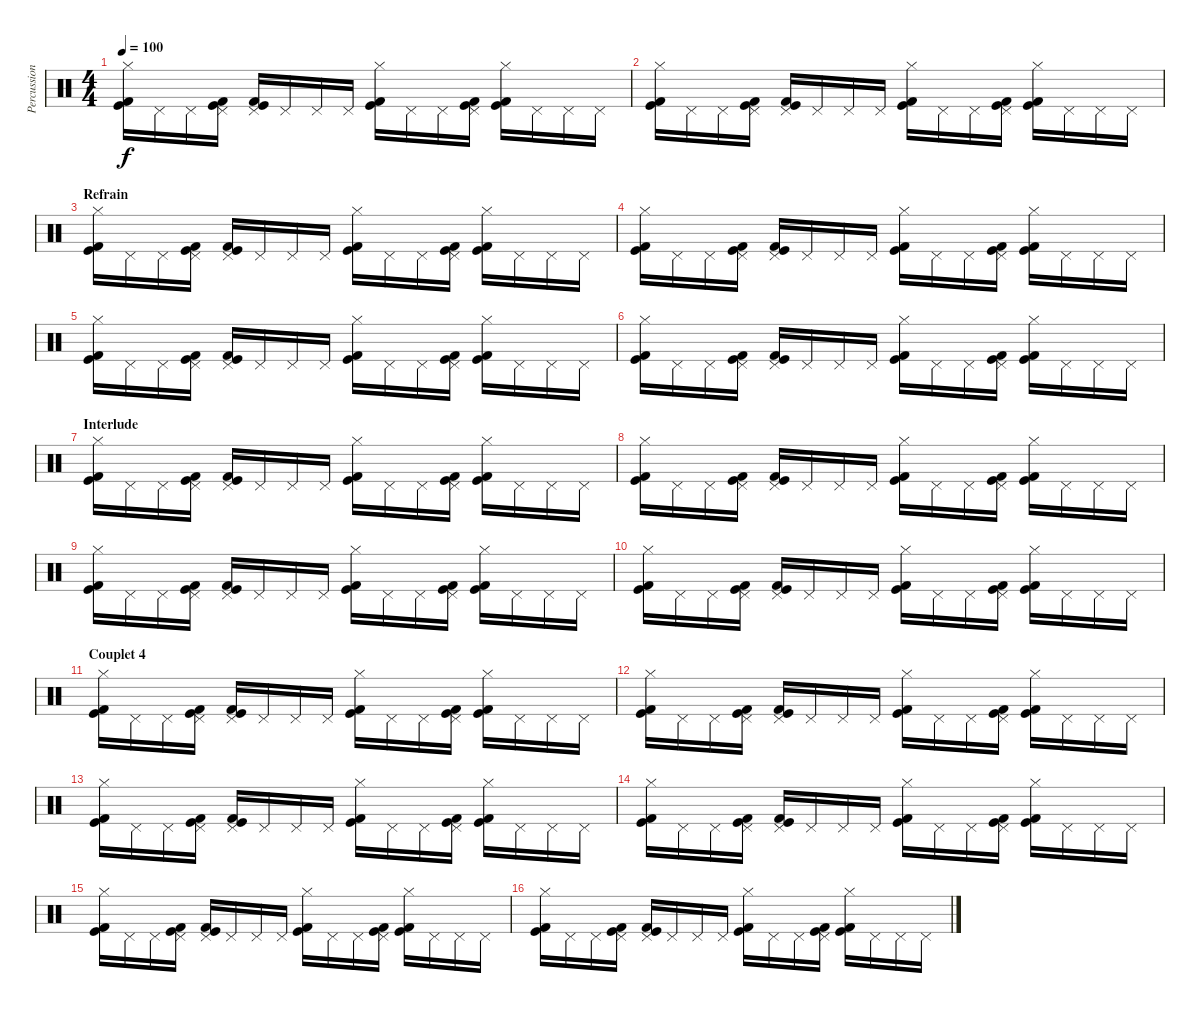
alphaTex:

\track ("Percussions" "Percussion") {instrument percussion}
\staff {score}
\articulation defaults
\ts (4 4)
\tempo 100
\clef neutral
\ks c
("Kick (hit)" "Kick (hit) 2" "Hi-Hat (closed)").16{dy f} "Pedal Hi-Hat (hit)".16 "Pedal Hi-Hat (hit)".16 ("Kick (hit)" "Kick (hit) 2" "Pedal Hi-Hat (hit)").16 ("Kick (hit)" "Kick (hit) 2" "Pedal Hi-Hat (hit)").16 "Pedal Hi-Hat (hit)".16 "Pedal Hi-Hat (hit)".16 "Pedal Hi-Hat (hit)".16 ("Kick (hit)" "Kick (hit) 2" "Hi-Hat (closed)").16 "Pedal Hi-Hat (hit)".16 "Pedal Hi-Hat (hit)".16 ("Kick (hit)" "Kick (hit) 2" "Pedal Hi-Hat (hit)").16 ("Kick (hit)" "Kick (hit) 2" "Hi-Hat (closed)").16 "Pedal Hi-Hat (hit)".16 "Pedal Hi-Hat (hit)".16 "Pedal Hi-Hat (hit)".16 |
("Kick (hit)" "Kick (hit) 2" "Hi-Hat (closed)").16 "Pedal Hi-Hat (hit)".16 "Pedal Hi-Hat (hit)".16 ("Kick (hit)" "Kick (hit) 2" "Pedal Hi-Hat (hit)").16 ("Kick (hit)" "Kick (hit) 2" "Pedal Hi-Hat (hit)").16 "Pedal Hi-Hat (hit)".16 "Pedal Hi-Hat (hit)".16 "Pedal Hi-Hat (hit)".16 ("Kick (hit)" "Kick (hit) 2" "Hi-Hat (closed)").16 "Pedal Hi-Hat (hit)".16 "Pedal Hi-Hat (hit)".16 ("Kick (hit)" "Kick (hit) 2" "Pedal Hi-Hat (hit)").16 ("Kick (hit)" "Kick (hit) 2" "Hi-Hat (closed)").16 "Pedal Hi-Hat (hit)".16 "Pedal Hi-Hat (hit)".16 "Pedal Hi-Hat (hit)".16 |
\section ("" "Refrain")
("Kick (hit)" "Kick (hit) 2" "Hi-Hat (closed)").16 "Pedal Hi-Hat (hit)".16 "Pedal Hi-Hat (hit)".16 ("Kick (hit)" "Kick (hit) 2" "Pedal Hi-Hat (hit)").16 ("Kick (hit)" "Kick (hit) 2" "Pedal Hi-Hat (hit)").16 "Pedal Hi-Hat (hit)".16 "Pedal Hi-Hat (hit)".16 "Pedal Hi-Hat (hit)".16 ("Kick (hit)" "Kick (hit) 2" "Hi-Hat (closed)").16 "Pedal Hi-Hat (hit)".16 "Pedal Hi-Hat (hit)".16 ("Kick (hit)" "Kick (hit) 2" "Pedal Hi-Hat (hit)").16 ("Kick (hit)" "Kick (hit) 2" "Hi-Hat (closed)").16 "Pedal Hi-Hat (hit)".16 "Pedal Hi-Hat (hit)".16 "Pedal Hi-Hat (hit)".16 |
("Kick (hit)" "Kick (hit) 2" "Hi-Hat (closed)").16 "Pedal Hi-Hat (hit)".16 "Pedal Hi-Hat (hit)".16 ("Kick (hit)" "Kick (hit) 2" "Pedal Hi-Hat (hit)").16 ("Kick (hit)" "Kick (hit) 2" "Pedal Hi-Hat (hit)").16 "Pedal Hi-Hat (hit)".16 "Pedal Hi-Hat (hit)".16 "Pedal Hi-Hat (hit)".16 ("Kick (hit)" "Kick (hit) 2" "Hi-Hat (closed)").16 "Pedal Hi-Hat (hit)".16 "Pedal Hi-Hat (hit)".16 ("Kick (hit)" "Kick (hit) 2" "Pedal Hi-Hat (hit)").16 ("Kick (hit)" "Kick (hit) 2" "Hi-Hat (closed)").16 "Pedal Hi-Hat (hit)".16 "Pedal Hi-Hat (hit)".16 "Pedal Hi-Hat (hit)".16 |
("Kick (hit)" "Kick (hit) 2" "Hi-Hat (closed)").16 "Pedal Hi-Hat (hit)".16 "Pedal Hi-Hat (hit)".16 ("Kick (hit)" "Kick (hit) 2" "Pedal Hi-Hat (hit)").16 ("Kick (hit)" "Kick (hit) 2" "Pedal Hi-Hat (hit)").16 "Pedal Hi-Hat (hit)".16 "Pedal Hi-Hat (hit)".16 "Pedal Hi-Hat (hit)".16 ("Kick (hit)" "Kick (hit) 2" "Hi-Hat (closed)").16 "Pedal Hi-Hat (hit)".16 "Pedal Hi-Hat (hit)".16 ("Kick (hit)" "Kick (hit) 2" "Pedal Hi-Hat (hit)").16 ("Kick (hit)" "Kick (hit) 2" "Hi-Hat (closed)").16 "Pedal Hi-Hat (hit)".16 "Pedal Hi-Hat (hit)".16 "Pedal Hi-Hat (hit)".16 |
("Kick (hit)" "Kick (hit) 2" "Hi-Hat (closed)").16 "Pedal Hi-Hat (hit)".16 "Pedal Hi-Hat (hit)".16 ("Kick (hit)" "Kick (hit) 2" "Pedal Hi-Hat (hit)").16 ("Kick (hit)" "Kick (hit) 2" "Pedal Hi-Hat (hit)").16 "Pedal Hi-Hat (hit)".16 "Pedal Hi-Hat (hit)".16 "Pedal Hi-Hat (hit)".16 ("Kick (hit)" "Kick (hit) 2" "Hi-Hat (closed)").16 "Pedal Hi-Hat (hit)".16 "Pedal Hi-Hat (hit)".16 ("Kick (hit)" "Kick (hit) 2" "Pedal Hi-Hat (hit)").16 ("Kick (hit)" "Kick (hit) 2" "Hi-Hat (closed)").16 "Pedal Hi-Hat (hit)".16 "Pedal Hi-Hat (hit)".16 "Pedal Hi-Hat (hit)".16 |
\section ("" "Interlude")
("Kick (hit)" "Kick (hit) 2" "Hi-Hat (closed)").16 "Pedal Hi-Hat (hit)".16 "Pedal Hi-Hat (hit)".16 ("Kick (hit)" "Kick (hit) 2" "Pedal Hi-Hat (hit)").16 ("Kick (hit)" "Kick (hit) 2" "Pedal Hi-Hat (hit)").16 "Pedal Hi-Hat (hit)".16 "Pedal Hi-Hat (hit)".16 "Pedal Hi-Hat (hit)".16 ("Kick (hit)" "Kick (hit) 2" "Hi-Hat (closed)").16 "Pedal Hi-Hat (hit)".16 "Pedal Hi-Hat (hit)".16 ("Kick (hit)" "Kick (hit) 2" "Pedal Hi-Hat (hit)").16 ("Kick (hit)" "Kick (hit) 2" "Hi-Hat (closed)").16 "Pedal Hi-Hat (hit)".16 "Pedal Hi-Hat (hit)".16 "Pedal Hi-Hat (hit)".16 |
("Kick (hit)" "Kick (hit) 2" "Hi-Hat (closed)").16 "Pedal Hi-Hat (hit)".16 "Pedal Hi-Hat (hit)".16 ("Kick (hit)" "Kick (hit) 2" "Pedal Hi-Hat (hit)").16 ("Kick (hit)" "Kick (hit) 2" "Pedal Hi-Hat (hit)").16 "Pedal Hi-Hat (hit)".16 "Pedal Hi-Hat (hit)".16 "Pedal Hi-Hat (hit)".16 ("Kick (hit)" "Kick (hit) 2" "Hi-Hat (closed)").16 "Pedal Hi-Hat (hit)".16 "Pedal Hi-Hat (hit)".16 ("Kick (hit)" "Kick (hit) 2" "Pedal Hi-Hat (hit)").16 ("Kick (hit)" "Kick (hit) 2" "Hi-Hat (closed)").16 "Pedal Hi-Hat (hit)".16 "Pedal Hi-Hat (hit)".16 "Pedal Hi-Hat (hit)".16 |
("Kick (hit)" "Kick (hit) 2" "Hi-Hat (closed)").16 "Pedal Hi-Hat (hit)".16 "Pedal Hi-Hat (hit)".16 ("Kick (hit)" "Kick (hit) 2" "Pedal Hi-Hat (hit)").16 ("Kick (hit)" "Kick (hit) 2" "Pedal Hi-Hat (hit)").16 "Pedal Hi-Hat (hit)".16 "Pedal Hi-Hat (hit)".16 "Pedal Hi-Hat (hit)".16 ("Kick (hit)" "Kick (hit) 2" "Hi-Hat (closed)").16 "Pedal Hi-Hat (hit)".16 "Pedal Hi-Hat (hit)".16 ("Kick (hit)" "Kick (hit) 2" "Pedal Hi-Hat (hit)").16 ("Kick (hit)" "Kick (hit) 2" "Hi-Hat (closed)").16 "Pedal Hi-Hat (hit)".16 "Pedal Hi-Hat (hit)".16 "Pedal Hi-Hat (hit)".16 |
("Kick (hit)" "Kick (hit) 2" "Hi-Hat (closed)").16 "Pedal Hi-Hat (hit)".16 "Pedal Hi-Hat (hit)".16 ("Kick (hit)" "Kick (hit) 2" "Pedal Hi-Hat (hit)").16 ("Kick (hit)" "Kick (hit) 2" "Pedal Hi-Hat (hit)").16 "Pedal Hi-Hat (hit)".16 "Pedal Hi-Hat (hit)".16 "Pedal Hi-Hat (hit)".16 ("Kick (hit)" "Kick (hit) 2" "Hi-Hat (closed)").16 "Pedal Hi-Hat (hit)".16 "Pedal Hi-Hat (hit)".16 ("Kick (hit)" "Kick (hit) 2" "Pedal Hi-Hat (hit)").16 ("Kick (hit)" "Kick (hit) 2" "Hi-Hat (closed)").16 "Pedal Hi-Hat (hit)".16 "Pedal Hi-Hat (hit)".16 "Pedal Hi-Hat (hit)".16 |
\section ("" "Couplet 4")
("Kick (hit)" "Kick (hit) 2" "Hi-Hat (closed)").16 "Pedal Hi-Hat (hit)".16 "Pedal Hi-Hat (hit)".16 ("Kick (hit)" "Kick (hit) 2" "Pedal Hi-Hat (hit)").16 ("Kick (hit)" "Kick (hit) 2" "Pedal Hi-Hat (hit)").16 "Pedal Hi-Hat (hit)".16 "Pedal Hi-Hat (hit)".16 "Pedal Hi-Hat (hit)".16 ("Kick (hit)" "Kick (hit) 2" "Hi-Hat (closed)").16 "Pedal Hi-Hat (hit)".16 "Pedal Hi-Hat (hit)".16 ("Kick (hit)" "Kick (hit) 2" "Pedal Hi-Hat (hit)").16 ("Kick (hit)" "Kick (hit) 2" "Hi-Hat (closed)").16 "Pedal Hi-Hat (hit)".16 "Pedal Hi-Hat (hit)".16 "Pedal Hi-Hat (hit)".16 |
("Kick (hit)" "Kick (hit) 2" "Hi-Hat (closed)").16 "Pedal Hi-Hat (hit)".16 "Pedal Hi-Hat (hit)".16 ("Kick (hit)" "Kick (hit) 2" "Pedal Hi-Hat (hit)").16 ("Kick (hit)" "Kick (hit) 2" "Pedal Hi-Hat (hit)").16 "Pedal Hi-Hat (hit)".16 "Pedal Hi-Hat (hit)".16 "Pedal Hi-Hat (hit)".16 ("Kick (hit)" "Kick (hit) 2" "Hi-Hat (closed)").16 "Pedal Hi-Hat (hit)".16 "Pedal Hi-Hat (hit)".16 ("Kick (hit)" "Kick (hit) 2" "Pedal Hi-Hat (hit)").16 ("Kick (hit)" "Kick (hit) 2" "Hi-Hat (closed)").16 "Pedal Hi-Hat (hit)".16 "Pedal Hi-Hat (hit)".16 "Pedal Hi-Hat (hit)".16 |
("Kick (hit)" "Kick (hit) 2" "Hi-Hat (closed)").16 "Pedal Hi-Hat (hit)".16 "Pedal Hi-Hat (hit)".16 ("Kick (hit)" "Kick (hit) 2" "Pedal Hi-Hat (hit)").16 ("Kick (hit)" "Kick (hit) 2" "Pedal Hi-Hat (hit)").16 "Pedal Hi-Hat (hit)".16 "Pedal Hi-Hat (hit)".16 "Pedal Hi-Hat (hit)".16 ("Kick (hit)" "Kick (hit) 2" "Hi-Hat (closed)").16 "Pedal Hi-Hat (hit)".16 "Pedal Hi-Hat (hit)".16 ("Kick (hit)" "Kick (hit) 2" "Pedal Hi-Hat (hit)").16 ("Kick (hit)" "Kick (hit) 2" "Hi-Hat (closed)").16 "Pedal Hi-Hat (hit)".16 "Pedal Hi-Hat (hit)".16 "Pedal Hi-Hat (hit)".16 |
("Kick (hit)" "Kick (hit) 2" "Hi-Hat (closed)").16 "Pedal Hi-Hat (hit)".16 "Pedal Hi-Hat (hit)".16 ("Kick (hit)" "Kick (hit) 2" "Pedal Hi-Hat (hit)").16 ("Kick (hit)" "Kick (hit) 2" "Pedal Hi-Hat (hit)").16 "Pedal Hi-Hat (hit)".16 "Pedal Hi-Hat (hit)".16 "Pedal Hi-Hat (hit)".16 ("Kick (hit)" "Kick (hit) 2" "Hi-Hat (closed)").16 "Pedal Hi-Hat (hit)".16 "Pedal Hi-Hat (hit)".16 ("Kick (hit)" "Kick (hit) 2" "Pedal Hi-Hat (hit)").16 ("Kick (hit)" "Kick (hit) 2" "Hi-Hat (closed)").16 "Pedal Hi-Hat (hit)".16 "Pedal Hi-Hat (hit)".16 "Pedal Hi-Hat (hit)".16 |
("Kick (hit)" "Kick (hit) 2" "Hi-Hat (closed)").16 "Pedal Hi-Hat (hit)".16 "Pedal Hi-Hat (hit)".16 ("Kick (hit)" "Kick (hit) 2" "Pedal Hi-Hat (hit)").16 ("Kick (hit)" "Kick (hit) 2" "Pedal Hi-Hat (hit)").16 "Pedal Hi-Hat (hit)".16 "Pedal Hi-Hat (hit)".16 "Pedal Hi-Hat (hit)".16 ("Kick (hit)" "Kick (hit) 2" "Hi-Hat (closed)").16 "Pedal Hi-Hat (hit)".16 "Pedal Hi-Hat (hit)".16 ("Kick (hit)" "Kick (hit) 2" "Pedal Hi-Hat (hit)").16 ("Kick (hit)" "Kick (hit) 2" "Hi-Hat (closed)").16 "Pedal Hi-Hat (hit)".16 "Pedal Hi-Hat (hit)".16 "Pedal Hi-Hat (hit)".16 |
("Kick (hit)" "Kick (hit) 2" "Hi-Hat (closed)").16 "Pedal Hi-Hat (hit)".16 "Pedal Hi-Hat (hit)".16 ("Kick (hit)" "Kick (hit) 2" "Pedal Hi-Hat (hit)").16 ("Kick (hit)" "Kick (hit) 2" "Pedal Hi-Hat (hit)").16 "Pedal Hi-Hat (hit)".16 "Pedal Hi-Hat (hit)".16 "Pedal Hi-Hat (hit)".16 ("Kick (hit)" "Kick (hit) 2" "Hi-Hat (closed)").16 "Pedal Hi-Hat (hit)".16 "Pedal Hi-Hat (hit)".16 ("Kick (hit)" "Kick (hit) 2" "Pedal Hi-Hat (hit)").16 ("Kick (hit)" "Kick (hit) 2" "Hi-Hat (closed)").16 "Pedal Hi-Hat (hit)".16 "Pedal Hi-Hat (hit)".16 "Pedal Hi-Hat (hit)".16
